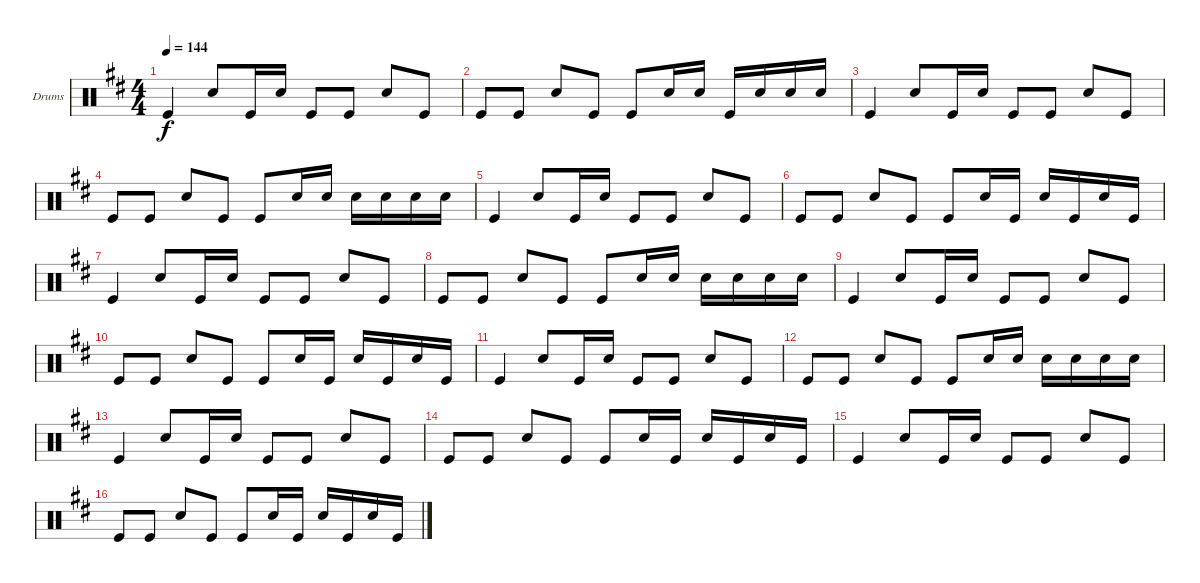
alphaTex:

\defaultSystemsLayout 4
\bracketExtendMode groupsimilarinstruments
\firstSystemTrackNameOrientation horizontal
\otherSystemsTrackNameOrientation horizontal
\track ("Drumkit" "Drums") {instrument percussion}
\staff {score}
\articulation defaults
\ts (4 4)
\tempo 144
\clef neutral
\scale
1.05044
\ks d "Kick (hit)".4{dy f} "Snare (hit) 2".8 "Kick (hit)".16 "Snare (hit) 2".16 "Kick (hit)".8 "Kick (hit)".8 "Snare (hit) 2".8 "Kick (hit)".8
|
\scale
0.949559 "Kick (hit)".8 "Kick (hit)".8 "Snare (hit) 2".8 "Kick (hit)".8 "Kick (hit)".8 "Snare (hit) 2".16 "Snare (hit) 2".16 "Kick (hit)".16 "Snare (hit) 2".16 "Snare (hit) 2".16 "Snare (hit) 2".16 |
\scale
1.05044 "Kick (hit)".4 "Snare (hit) 2".8 "Kick (hit)".16 "Snare (hit) 2".16 "Kick (hit)".8 "Kick (hit)".8 "Snare (hit) 2".8 "Kick (hit)".8 |
\scale
0.949559 "Kick (hit)".8 "Kick (hit)".8 "Snare (hit) 2".8 "Kick (hit)".8 "Kick (hit)".8 "Snare (hit) 2".16 "Snare (hit) 2".16 "Snare (hit) 2".16 "Snare (hit) 2".16 "Snare (hit) 2".16 "Snare (hit) 2".16 |
\scale
1.05044 "Kick (hit)".4 "Snare (hit) 2".8 "Kick (hit)".16 "Snare (hit) 2".16 "Kick (hit)".8 "Kick (hit)".8 "Snare (hit) 2".8 "Kick (hit)".8 |
\scale
0.949559 "Kick (hit)".8 "Kick (hit)".8 "Snare (hit) 2".8 "Kick (hit)".8 "Kick (hit)".8 "Snare (hit) 2".16 "Kick (hit)".16 "Snare (hit) 2".16 "Kick (hit)".16 "Snare (hit) 2".16 "Kick (hit)".16 |
\scale
1.05044 "Kick (hit)".4 "Snare (hit) 2".8 "Kick (hit)".16 "Snare (hit) 2".16 "Kick (hit)".8 "Kick (hit)".8 "Snare (hit) 2".8 "Kick (hit)".8 |
\scale
0.949559 "Kick (hit)".8 "Kick (hit)".8 "Snare (hit) 2".8 "Kick (hit)".8 "Kick (hit)".8 "Snare (hit) 2".16 "Snare (hit) 2".16 "Snare (hit) 2".16 "Snare (hit) 2".16 "Snare (hit) 2".16 "Snare (hit) 2".16 |
\scale
1.05044 "Kick (hit)".4 "Snare (hit) 2".8 "Kick (hit)".16 "Snare (hit) 2".16 "Kick (hit)".8 "Kick (hit)".8 "Snare (hit) 2".8 "Kick (hit)".8 |
\scale
0.949559 "Kick (hit)".8 "Kick (hit)".8 "Snare (hit) 2".8 "Kick (hit)".8 "Kick (hit)".8 "Snare (hit) 2".16 "Kick (hit)".16 "Snare (hit) 2".16 "Kick (hit)".16 "Snare (hit) 2".16 "Kick (hit)".16 |
\scale
1.05044 "Kick (hit)".4 "Snare (hit) 2".8 "Kick (hit)".16 "Snare (hit) 2".16 "Kick (hit)".8 "Kick (hit)".8 "Snare (hit) 2".8 "Kick (hit)".8 |
\scale
0.949559 "Kick (hit)".8 "Kick (hit)".8 "Snare (hit) 2".8 "Kick (hit)".8 "Kick (hit)".8 "Snare (hit) 2".16 "Snare (hit) 2".16 "Snare (hit) 2".16 "Snare (hit) 2".16 "Snare (hit) 2".16 "Snare (hit) 2".16 |
\scale
1.05044 "Kick (hit)".4 "Snare (hit) 2".8 "Kick (hit)".16 "Snare (hit) 2".16 "Kick (hit)".8 "Kick (hit)".8 "Snare (hit) 2".8 "Kick (hit)".8 |
\scale
0.949559 "Kick (hit)".8 "Kick (hit)".8 "Snare (hit) 2".8 "Kick (hit)".8 "Kick (hit)".8 "Snare (hit) 2".16 "Kick (hit)".16 "Snare (hit) 2".16 "Kick (hit)".16 "Snare (hit) 2".16 "Kick (hit)".16 |
\scale
1.05044 "Kick (hit)".4 "Snare (hit) 2".8 "Kick (hit)".16 "Snare (hit) 2".16 "Kick (hit)".8 "Kick (hit)".8 "Snare (hit) 2".8 "Kick (hit)".8 |
\scale
0.949559 "Kick (hit)".8 "Kick (hit)".8 "Snare (hit) 2".8 "Kick (hit)".8 "Kick (hit)".8 "Snare (hit) 2".16 "Kick (hit)".16 "Snare (hit) 2".16 "Kick (hit)".16 "Snare (hit) 2".16 "Kick (hit)".16
